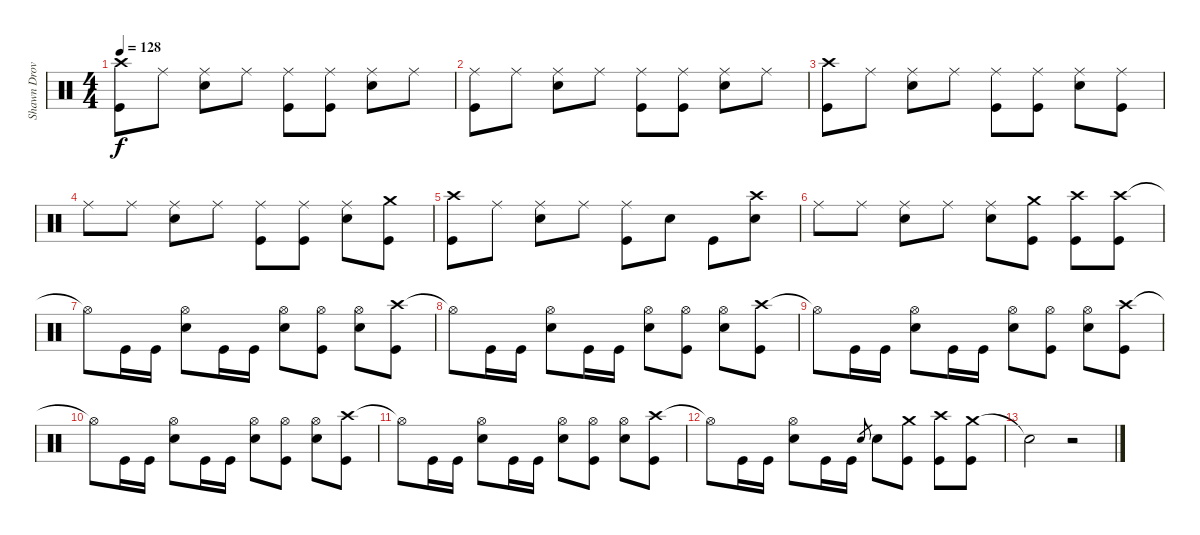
\track ("Shawn Drover" "Shawn Drov") {instrument percussion}
\staff {score}
\articulation defaults
\ts (4 4)
\tempo 128
\clef neutral
\ks c
("Crash high (hit)" "Kick (hit)").8{dy f} "Ride (middle)".8 ("Ride (middle)" "Snare (hit) 2").8 "Ride (middle)".8 ("Ride (middle)" "Kick (hit)").8 ("Ride (middle)" "Kick (hit)").8 ("Ride (middle)" "Snare (hit) 2").8 "Ride (middle)".8 |
("Ride (middle)" "Kick (hit)").8 "Ride (middle)".8 ("Ride (middle)" "Snare (hit) 2").8 "Ride (middle)".8 ("Ride (middle)" "Kick (hit)").8 ("Ride (middle)" "Kick (hit)").8 ("Ride (middle)" "Snare (hit) 2").8 "Ride (middle)".8 |
("Crash high (hit)" "Kick (hit)").8 "Ride (middle)".8 ("Ride (middle)" "Snare (hit) 2").8 "Ride (middle)".8 ("Ride (middle)" "Kick (hit)").8 ("Ride (middle)" "Kick (hit)").8 ("Ride (middle)" "Snare (hit) 2").8 ("Ride (middle)" "Kick (hit)").8 |
"Ride (middle)".8 "Ride (middle)".8 ("Ride (middle)" "Snare (hit) 2").8 "Ride (middle)".8 ("Ride (middle)" "Kick (hit)").8 ("Ride (middle)" "Kick (hit)").8 ("Ride (middle)" "Snare (hit) 2").8 ("Crash medium (hit)" "Kick (hit)").8 |
("Crash high (hit)" "Kick (hit)").8 "Ride (middle)".8 ("Ride (middle)" "Snare (hit) 2").8 "Ride (middle)".8 ("Ride (middle)" "Kick (hit)").8 "Snare (hit) 2".8 "Kick (hit)".8 ("Crash high (hit)" "Snare (hit) 2").8 |
"Ride (middle)".8 "Ride (middle)".8 ("Ride (middle)" "Snare (hit) 2").8 "Ride (middle)".8 ("Ride (middle)" "Snare (hit) 2").8 ("Crash medium (hit)" "Kick (hit)").8 ("Crash high (hit)" "Kick (hit)").8 ("Crash high (hit)" "Kick (hit)").8 |
"Hi-Hat (open)"{t}.8 "Kick (hit)".16 "Kick (hit)".16 ("Hi-Hat (open)" "Snare (hit) 2").8 "Kick (hit)".16 "Kick (hit)".16 ("Hi-Hat (open)" "Snare (hit) 2").8 ("Hi-Hat (open)" "Kick (hit)").8 ("Hi-Hat (open)" "Snare (hit) 2").8 ("Crash high (hit)" "Kick (hit)").8 |
"Hi-Hat (open)"{t}.8 "Kick (hit)".16 "Kick (hit)".16 ("Hi-Hat (open)" "Snare (hit) 2").8 "Kick (hit)".16 "Kick (hit)".16 ("Hi-Hat (open)" "Snare (hit) 2").8 ("Hi-Hat (open)" "Kick (hit)").8 ("Hi-Hat (open)" "Snare (hit) 2").8 ("Crash high (hit)" "Kick (hit)").8 |
"Hi-Hat (open)"{t}.8 "Kick (hit)".16 "Kick (hit)".16 ("Hi-Hat (open)" "Snare (hit) 2").8 "Kick (hit)".16 "Kick (hit)".16 ("Hi-Hat (open)" "Snare (hit) 2").8 ("Hi-Hat (open)" "Kick (hit)").8 ("Hi-Hat (open)" "Snare (hit) 2").8 ("Crash high (hit)" "Kick (hit)").8 |
"Hi-Hat (open)"{t}.8 "Kick (hit)".16 "Kick (hit)".16 ("Hi-Hat (open)" "Snare (hit) 2").8 "Kick (hit)".16 "Kick (hit)".16 ("Hi-Hat (open)" "Snare (hit) 2").8 ("Hi-Hat (open)" "Kick (hit)").8 ("Hi-Hat (open)" "Snare (hit) 2").8 ("Crash high (hit)" "Kick (hit)").8 |
"Hi-Hat (open)"{t}.8 "Kick (hit)".16 "Kick (hit)".16 ("Hi-Hat (open)" "Snare (hit) 2").8 "Kick (hit)".16 "Kick (hit)".16 ("Hi-Hat (open)" "Snare (hit) 2").8 ("Hi-Hat (open)" "Kick (hit)").8 ("Hi-Hat (open)" "Snare (hit) 2").8 ("Crash high (hit)" "Kick (hit)").8 |
"Hi-Hat (open)"{t}.8 "Kick (hit)".16 "Kick (hit)".16 ("Hi-Hat (open)" "Snare (hit) 2").8 "Kick (hit)".16 "Kick (hit)".16 "Snare (hit) 2".8{gr} "Snare (hit) 2".8 ("Crash medium (hit)" "Kick (hit)").8 ("Crash high (hit)" "Kick (hit)").8 ("Crash medium (hit)" "Kick (hit)").8 |
"Snare (hit)"{t}.2 r.2
